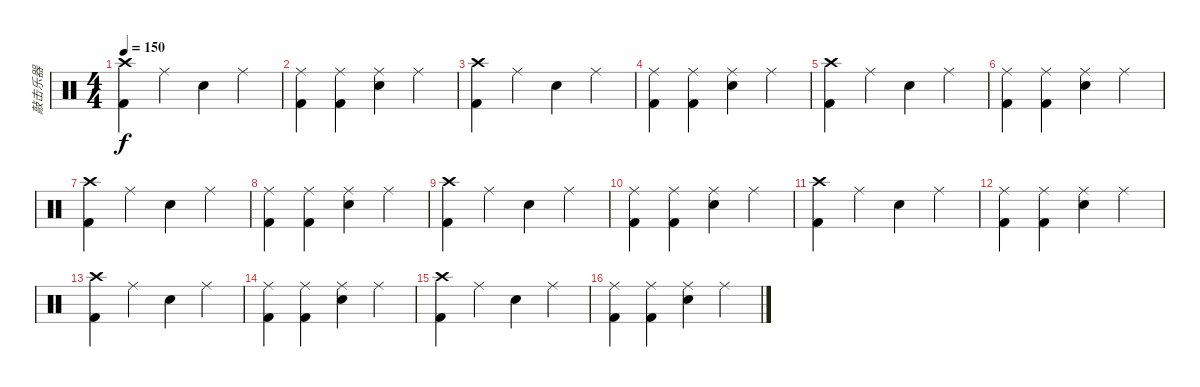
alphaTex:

\track ("敲击乐器" "敲击乐器") {instrument percussion}
\staff {score}
\articulation defaults
\ts (4 4)
\tempo 150
\clef neutral
\ks c
("Crash high (hit)" "Kick (hit) 2").4{dy f} "Ride (middle)".4 "Snare (hit) 2".4 "Ride (middle)".4 |
("Ride (middle)" "Kick (hit) 2").4 ("Ride (middle)" "Kick (hit) 2").4 ("Ride (middle)" "Snare (hit) 2").4 "Ride (middle)".4 |
("Crash high (hit)" "Kick (hit) 2").4 "Ride (middle)".4 "Snare (hit) 2".4 "Ride (middle)".4 |
("Ride (middle)" "Kick (hit) 2").4 ("Ride (middle)" "Kick (hit) 2").4 ("Ride (middle)" "Snare (hit) 2").4 "Ride (middle)".4 |
("Crash high (hit)" "Kick (hit) 2").4 "Ride (middle)".4 "Snare (hit) 2".4 "Ride (middle)".4 |
("Ride (middle)" "Kick (hit) 2").4 ("Ride (middle)" "Kick (hit) 2").4 ("Ride (middle)" "Snare (hit) 2").4 "Ride (middle)".4 |
("Crash high (hit)" "Kick (hit) 2").4 "Ride (middle)".4 "Snare (hit) 2".4 "Ride (middle)".4 |
("Ride (middle)" "Kick (hit) 2").4 ("Ride (middle)" "Kick (hit) 2").4 ("Ride (middle)" "Snare (hit) 2").4 "Ride (middle)".4 |
("Crash high (hit)" "Kick (hit) 2").4 "Ride (middle)".4 "Snare (hit) 2".4 "Ride (middle)".4 |
("Ride (middle)" "Kick (hit) 2").4 ("Ride (middle)" "Kick (hit) 2").4 ("Ride (middle)" "Snare (hit) 2").4 "Ride (middle)".4 |
("Crash high (hit)" "Kick (hit) 2").4 "Ride (middle)".4 "Snare (hit) 2".4 "Ride (middle)".4 |
("Ride (middle)" "Kick (hit) 2").4 ("Ride (middle)" "Kick (hit) 2").4 ("Ride (middle)" "Snare (hit) 2").4 "Ride (middle)".4 |
("Crash high (hit)" "Kick (hit) 2").4 "Ride (middle)".4 "Snare (hit) 2".4 "Ride (middle)".4 |
("Ride (middle)" "Kick (hit) 2").4 ("Ride (middle)" "Kick (hit) 2").4 ("Ride (middle)" "Snare (hit) 2").4 "Ride (middle)".4 |
("Crash high (hit)" "Kick (hit) 2").4 "Ride (middle)".4 "Snare (hit) 2".4 "Ride (middle)".4 |
("Ride (middle)" "Kick (hit) 2").4 ("Ride (middle)" "Kick (hit) 2").4 ("Ride (middle)" "Snare (hit) 2").4 "Ride (middle)".4
